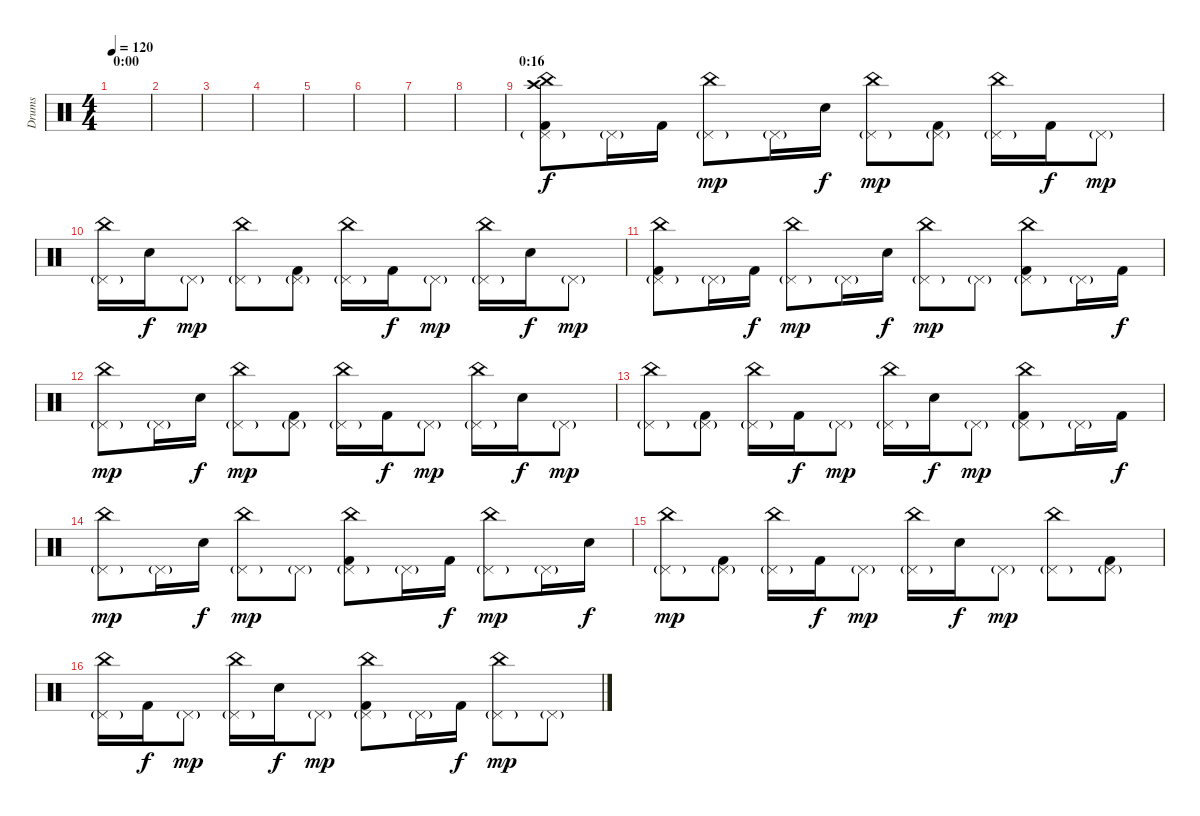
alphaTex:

\track ("Drums" "Drums") {instrument percussion}
\staff {score}
\articulation defaults
\ts (4 4)
\section ("" "0:00")
\tempo 120
\clef neutral
\ks c
|
|
|
|
|
|
|
|
\section ("" "0:16")
("Crash high (hit)" "China (hit)" "Pedal Hi-Hat (hit)"{g} "Kick (hit) 2").8 "Pedal Hi-Hat (hit)"{g}.16 "Kick (hit) 2".16{dy f} ("China (hit)" "Pedal Hi-Hat (hit)"{g}).8{dy mp} "Pedal Hi-Hat (hit)"{g}.16 "Electric Snare (hit)".16{dy f} ("China (hit)" "Pedal Hi-Hat (hit)"{g}).8{dy mp} ("Pedal Hi-Hat (hit)"{g} "Kick (hit) 2").8 ("China (hit)" "Pedal Hi-Hat (hit)"{g}).16 "Kick (hit) 2".16{dy f} "Pedal Hi-Hat (hit)"{g}.8{dy mp} |
("China (hit)" "Pedal Hi-Hat (hit)"{g}).16 "Electric Snare (hit)".16{dy f} "Pedal Hi-Hat (hit)"{g}.8{dy mp} ("China (hit)" "Pedal Hi-Hat (hit)"{g}).8 ("Pedal Hi-Hat (hit)"{g} "Kick (hit) 2").8 ("China (hit)" "Pedal Hi-Hat (hit)"{g}).16 "Kick (hit) 2".16{dy f} "Pedal Hi-Hat (hit)"{g}.8{dy mp} ("China (hit)" "Pedal Hi-Hat (hit)"{g}).16 "Electric Snare (hit)".16{dy f} "Pedal Hi-Hat (hit)"{g}.8{dy mp} |
("China (hit)" "Pedal Hi-Hat (hit)"{g} "Kick (hit) 2").8 "Pedal Hi-Hat (hit)"{g}.16 "Kick (hit) 2".16{dy f} ("China (hit)" "Pedal Hi-Hat (hit)"{g}).8{dy mp} "Pedal Hi-Hat (hit)"{g}.16 "Electric Snare (hit)".16{dy f} ("China (hit)" "Pedal Hi-Hat (hit)"{g}).8{dy mp} "Pedal Hi-Hat (hit)"{g}.8 ("China (hit)" "Pedal Hi-Hat (hit)"{g} "Kick (hit) 2").8 "Pedal Hi-Hat (hit)"{g}.16 "Kick (hit) 2".16{dy f} |
("China (hit)" "Pedal Hi-Hat (hit)"{g}).8{dy mp} "Pedal Hi-Hat (hit)"{g}.16 "Electric Snare (hit)".16{dy f} ("China (hit)" "Pedal Hi-Hat (hit)"{g}).8{dy mp} ("Pedal Hi-Hat (hit)"{g} "Kick (hit) 2").8 ("China (hit)" "Pedal Hi-Hat (hit)"{g}).16 "Kick (hit) 2".16{dy f} "Pedal Hi-Hat (hit)"{g}.8{dy mp} ("China (hit)" "Pedal Hi-Hat (hit)"{g}).16 "Electric Snare (hit)".16{dy f} "Pedal Hi-Hat (hit)"{g}.8{dy mp} |
("China (hit)" "Pedal Hi-Hat (hit)"{g}).8 ("Pedal Hi-Hat (hit)"{g} "Kick (hit) 2").8 ("China (hit)" "Pedal Hi-Hat (hit)"{g}).16 "Kick (hit) 2".16{dy f} "Pedal Hi-Hat (hit)"{g}.8{dy mp} ("China (hit)" "Pedal Hi-Hat (hit)"{g}).16 "Electric Snare (hit)".16{dy f} "Pedal Hi-Hat (hit)"{g}.8{dy mp} ("China (hit)" "Pedal Hi-Hat (hit)"{g} "Kick (hit) 2").8 "Pedal Hi-Hat (hit)"{g}.16 "Kick (hit) 2".16{dy f} |
("China (hit)" "Pedal Hi-Hat (hit)"{g}).8{dy mp} "Pedal Hi-Hat (hit)"{g}.16 "Electric Snare (hit)".16{dy f} ("China (hit)" "Pedal Hi-Hat (hit)"{g}).8{dy mp} "Pedal Hi-Hat (hit)"{g}.8 ("China (hit)" "Pedal Hi-Hat (hit)"{g} "Kick (hit) 2").8 "Pedal Hi-Hat (hit)"{g}.16 "Kick (hit) 2".16{dy f} ("China (hit)" "Pedal Hi-Hat (hit)"{g}).8{dy mp} "Pedal Hi-Hat (hit)"{g}.16 "Electric Snare (hit)".16{dy f} |
("China (hit)" "Pedal Hi-Hat (hit)"{g}).8{dy mp} ("Pedal Hi-Hat (hit)"{g} "Kick (hit) 2").8 ("China (hit)" "Pedal Hi-Hat (hit)"{g}).16 "Kick (hit) 2".16{dy f} "Pedal Hi-Hat (hit)"{g}.8{dy mp} ("China (hit)" "Pedal Hi-Hat (hit)"{g}).16 "Electric Snare (hit)".16{dy f} "Pedal Hi-Hat (hit)"{g}.8{dy mp} ("China (hit)" "Pedal Hi-Hat (hit)"{g}).8 ("Pedal Hi-Hat (hit)"{g} "Kick (hit) 2").8 |
("China (hit)" "Pedal Hi-Hat (hit)"{g}).16 "Kick (hit) 2".16{dy f} "Pedal Hi-Hat (hit)"{g}.8{dy mp} ("China (hit)" "Pedal Hi-Hat (hit)"{g}).16 "Electric Snare (hit)".16{dy f} "Pedal Hi-Hat (hit)"{g}.8{dy mp} ("China (hit)" "Pedal Hi-Hat (hit)"{g} "Kick (hit) 2").8 "Pedal Hi-Hat (hit)"{g}.16 "Kick (hit) 2".16{dy f} ("China (hit)" "Pedal Hi-Hat (hit)"{g}).8{dy mp} "Pedal Hi-Hat (hit)"{g}.8
